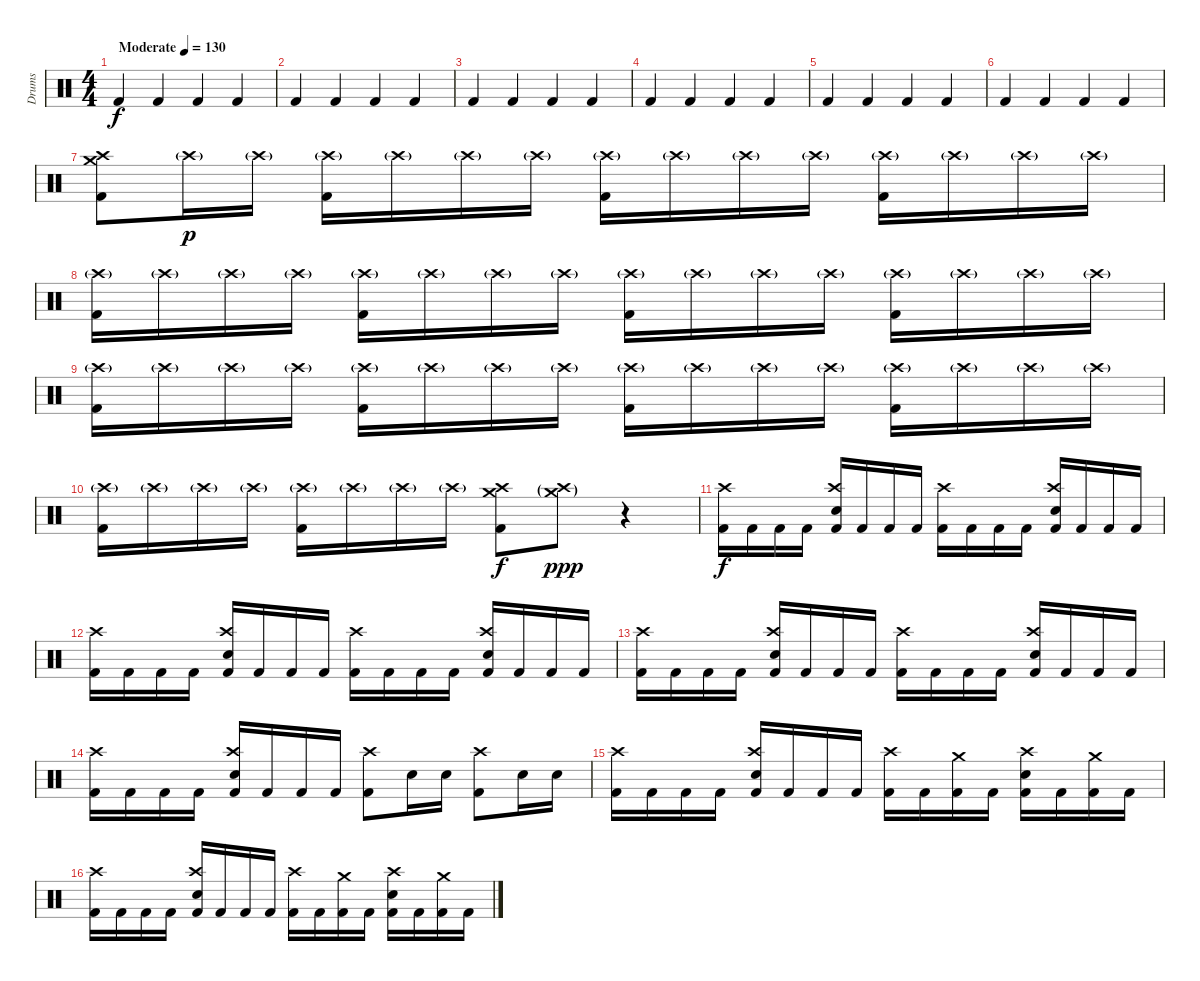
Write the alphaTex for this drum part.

\track ("Drums" "Drums") {instrument percussion}
\staff {score}
\articulation defaults
\ts (4 4)
\tempo (130 "Moderate")
\clef neutral
\ks c "Kick (hit) 2".4{dy f} "Kick (hit) 2".4 "Kick (hit) 2".4 "Kick (hit) 2".4
|
"Kick (hit) 2".4 "Kick (hit) 2".4 "Kick (hit) 2".4 "Kick (hit) 2".4 |
"Kick (hit) 2".4 "Kick (hit) 2".4 "Kick (hit) 2".4 "Kick (hit) 2".4 |
"Kick (hit) 2".4 "Kick (hit) 2".4 "Kick (hit) 2".4 "Kick (hit) 2".4 |
"Kick (hit) 2".4 "Kick (hit) 2".4 "Kick (hit) 2".4 "Kick (hit) 2".4 |
"Kick (hit) 2".4 "Kick (hit) 2".4 "Kick (hit) 2".4 "Kick (hit) 2".4 |
("Crash high (hit)" "Crash medium (hit)" "Kick (hit) 2").8 "Crash high (hit)"{g}.16{dy p} "Crash high (hit)"{g}.16 ("Crash high (hit)"{g} "Kick (hit) 2").16 "Crash high (hit)"{g}.16 "Crash high (hit)"{g}.16 "Crash high (hit)"{g}.16 ("Crash high (hit)"{g} "Kick (hit) 2").16 "Crash high (hit)"{g}.16 "Crash high (hit)"{g}.16 "Crash high (hit)"{g}.16 ("Crash high (hit)"{g} "Kick (hit) 2").16 "Crash high (hit)"{g}.16 "Crash high (hit)"{g}.16 "Crash high (hit)"{g}.16 |
("Crash high (hit)"{g} "Kick (hit) 2").16 "Crash high (hit)"{g}.16 "Crash high (hit)"{g}.16 "Crash high (hit)"{g}.16 ("Crash high (hit)"{g} "Kick (hit) 2").16 "Crash high (hit)"{g}.16 "Crash high (hit)"{g}.16 "Crash high (hit)"{g}.16 ("Crash high (hit)"{g} "Kick (hit) 2").16 "Crash high (hit)"{g}.16 "Crash high (hit)"{g}.16 "Crash high (hit)"{g}.16 ("Crash high (hit)"{g} "Kick (hit) 2").16 "Crash high (hit)"{g}.16 "Crash high (hit)"{g}.16 "Crash high (hit)"{g}.16 |
("Crash high (hit)"{g} "Kick (hit) 2").16 "Crash high (hit)"{g}.16 "Crash high (hit)"{g}.16 "Crash high (hit)"{g}.16 ("Crash high (hit)"{g} "Kick (hit) 2").16 "Crash high (hit)"{g}.16 "Crash high (hit)"{g}.16 "Crash high (hit)"{g}.16 ("Crash high (hit)"{g} "Kick (hit) 2").16 "Crash high (hit)"{g}.16 "Crash high (hit)"{g}.16 "Crash high (hit)"{g}.16 ("Crash high (hit)"{g} "Kick (hit) 2").16 "Crash high (hit)"{g}.16 "Crash high (hit)"{g}.16 "Crash high (hit)"{g}.16 |
("Crash high (hit)"{g} "Kick (hit) 2").16 "Crash high (hit)"{g}.16 "Crash high (hit)"{g}.16 "Crash high (hit)"{g}.16 ("Crash high (hit)"{g} "Kick (hit) 2").16 "Crash high (hit)"{g}.16 "Crash high (hit)"{g}.16 "Crash high (hit)"{g}.16 ("Crash high (hit)" "Crash medium (hit)" "Kick (hit) 2").8{dy f} ("Crash high (hit)"{g} "Crash medium (hit)"{g}).8{dy ppp} r.4 |
("Crash high (hit)" "Kick (hit) 2").16{dy f} "Kick (hit) 2".16 "Kick (hit) 2".16 "Kick (hit) 2".16 ("Crash high (hit)" "Electric Snare (hit)" "Kick (hit) 2").16 "Kick (hit) 2".16 "Kick (hit) 2".16 "Kick (hit) 2".16 ("Crash high (hit)" "Kick (hit) 2").16 "Kick (hit) 2".16 "Kick (hit) 2".16 "Kick (hit) 2".16 ("Crash high (hit)" "Electric Snare (hit)" "Kick (hit) 2").16 "Kick (hit) 2".16 "Kick (hit) 2".16 "Kick (hit) 2".16 |
("Crash high (hit)" "Kick (hit) 2").16 "Kick (hit) 2".16 "Kick (hit) 2".16 "Kick (hit) 2".16 ("Crash high (hit)" "Electric Snare (hit)" "Kick (hit) 2").16 "Kick (hit) 2".16 "Kick (hit) 2".16 "Kick (hit) 2".16 ("Crash high (hit)" "Kick (hit) 2").16 "Kick (hit) 2".16 "Kick (hit) 2".16 "Kick (hit) 2".16 ("Crash high (hit)" "Electric Snare (hit)" "Kick (hit) 2").16 "Kick (hit) 2".16 "Kick (hit) 2".16 "Kick (hit) 2".16 |
("Crash high (hit)" "Kick (hit) 2").16 "Kick (hit) 2".16 "Kick (hit) 2".16 "Kick (hit) 2".16 ("Crash high (hit)" "Electric Snare (hit)" "Kick (hit) 2").16 "Kick (hit) 2".16 "Kick (hit) 2".16 "Kick (hit) 2".16 ("Crash high (hit)" "Kick (hit) 2").16 "Kick (hit) 2".16 "Kick (hit) 2".16 "Kick (hit) 2".16 ("Crash high (hit)" "Electric Snare (hit)" "Kick (hit) 2").16 "Kick (hit) 2".16 "Kick (hit) 2".16 "Kick (hit) 2".16 |
("Crash high (hit)" "Kick (hit) 2").16 "Kick (hit) 2".16 "Kick (hit) 2".16 "Kick (hit) 2".16 ("Crash high (hit)" "Electric Snare (hit)" "Kick (hit) 2").16 "Kick (hit) 2".16 "Kick (hit) 2".16 "Kick (hit) 2".16 ("Crash high (hit)" "Kick (hit) 2").8 "Electric Snare (hit)".16 "Electric Snare (hit)".16 ("Crash high (hit)" "Kick (hit) 2").8 "Electric Snare (hit)".16 "Electric Snare (hit)".16 |
("Crash high (hit)" "Kick (hit) 2").16 "Kick (hit) 2".16 "Kick (hit) 2".16 "Kick (hit) 2".16 ("Crash high (hit)" "Electric Snare (hit)" "Kick (hit) 2").16 "Kick (hit) 2".16 "Kick (hit) 2".16 "Kick (hit) 2".16 ("Crash high (hit)" "Kick (hit) 2").16 "Kick (hit) 2".16 ("Crash medium (hit)" "Kick (hit) 2").16 "Kick (hit) 2".16 ("Crash high (hit)" "Electric Snare (hit)" "Kick (hit) 2").16 "Kick (hit) 2".16 ("Crash medium (hit)" "Kick (hit) 2").16 "Kick (hit) 2".16 |
("Crash high (hit)" "Kick (hit) 2").16 "Kick (hit) 2".16 "Kick (hit) 2".16 "Kick (hit) 2".16 ("Crash high (hit)" "Electric Snare (hit)" "Kick (hit) 2").16 "Kick (hit) 2".16 "Kick (hit) 2".16 "Kick (hit) 2".16 ("Crash high (hit)" "Kick (hit) 2").16 "Kick (hit) 2".16 ("Crash medium (hit)" "Kick (hit) 2").16 "Kick (hit) 2".16 ("Crash high (hit)" "Electric Snare (hit)" "Kick (hit) 2").16 "Kick (hit) 2".16 ("Crash medium (hit)" "Kick (hit) 2").16 "Kick (hit) 2".16
